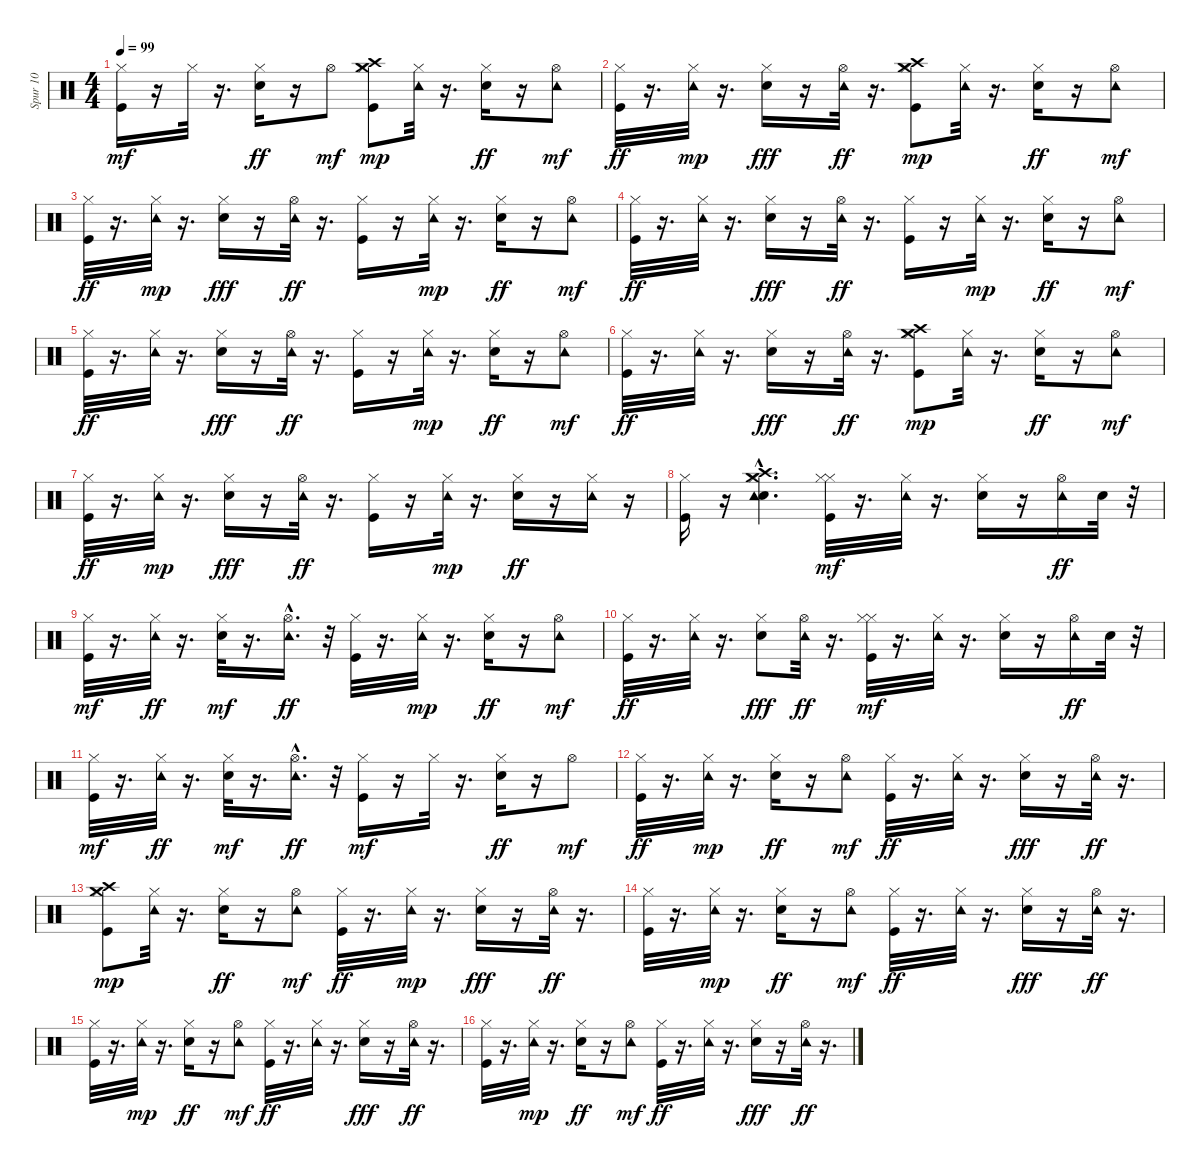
\track ("Spur 10" "Spur 10") {instrument percussion}
\staff {score}
\articulation defaults
\ts (4 4)
\tempo 99
\clef neutral
\ks c
("Kick (hit)" "Hi-Hat (closed)").16{dy mf} r.16 "Hi-Hat (closed)".32 r.16{d} ("Hi-Hat (closed)" "Electric Snare (hit)").16{dy ff} r.16 "Hi-Hat (open)".8{dy mf} ("Hi-Hat (closed)" "Kick (hit)" "Crash high (hit)" "Crash medium (hit)").8{dy mp} ("Hi-Hat (closed)" "Tambourine (hit)").32 r.16{d} ("Hi-Hat (closed)" "Electric Snare (hit)").16{dy ff} r.16 ("Hi-Hat (open)" "Tambourine (hit)").8{dy mf} |
("Hi-Hat (closed)" "Kick (hit)").32{dy ff} r.16{d} ("Hi-Hat (closed)" "Tambourine (hit)").32{dy mp} r.16{d} ("Hi-Hat (closed)" "Electric Snare (hit)").16{dy fff} r.16 ("Hi-Hat (open)" "Tambourine (hit)").32{dy ff} r.16{d} ("Hi-Hat (closed)" "Kick (hit)" "Crash high (hit)" "Crash medium (hit)").8{dy mp} ("Hi-Hat (closed)" "Tambourine (hit)").32 r.16{d} ("Hi-Hat (closed)" "Electric Snare (hit)").16{dy ff} r.16 ("Hi-Hat (open)" "Tambourine (hit)").8{dy mf} |
("Hi-Hat (closed)" "Kick (hit)").32{dy ff} r.16{d} ("Hi-Hat (closed)" "Tambourine (hit)").32{dy mp} r.16{d} ("Hi-Hat (closed)" "Electric Snare (hit)").16{dy fff} r.16 ("Hi-Hat (open)" "Tambourine (hit)").32{dy ff} r.16{d} ("Hi-Hat (closed)" "Kick (hit)").16 r.16 ("Hi-Hat (closed)" "Tambourine (hit)").32{dy mp} r.16{d} ("Hi-Hat (closed)" "Electric Snare (hit)").16{dy ff} r.16 ("Hi-Hat (open)" "Tambourine (hit)").8{dy mf} |
("Hi-Hat (closed)" "Kick (hit)").32{dy ff} r.16{d} ("Hi-Hat (closed)" "Tambourine (hit)").32 r.16{d} ("Hi-Hat (closed)" "Electric Snare (hit)").16{dy fff} r.16 ("Hi-Hat (open)" "Tambourine (hit)").32{dy ff} r.16{d} ("Hi-Hat (closed)" "Kick (hit)").16 r.16 ("Hi-Hat (closed)" "Tambourine (hit)").32{dy mp} r.16{d} ("Hi-Hat (closed)" "Electric Snare (hit)").16{dy ff} r.16 ("Hi-Hat (open)" "Tambourine (hit)").8{dy mf} |
("Hi-Hat (closed)" "Kick (hit)").32{dy ff} r.16{d} ("Hi-Hat (closed)" "Tambourine (hit)").32 r.16{d} ("Hi-Hat (closed)" "Electric Snare (hit)").16{dy fff} r.16 ("Hi-Hat (open)" "Tambourine (hit)").32{dy ff} r.16{d} ("Hi-Hat (closed)" "Kick (hit)").16 r.16 ("Hi-Hat (closed)" "Tambourine (hit)").32{dy mp} r.16{d} ("Hi-Hat (closed)" "Electric Snare (hit)").16{dy ff} r.16 ("Hi-Hat (open)" "Tambourine (hit)").8{dy mf} |
("Hi-Hat (closed)" "Kick (hit)").32{dy ff} r.16{d} ("Hi-Hat (closed)" "Tambourine (hit)").32 r.16{d} ("Hi-Hat (closed)" "Electric Snare (hit)").16{dy fff} r.16 ("Hi-Hat (open)" "Tambourine (hit)").32{dy ff} r.16{d} ("Hi-Hat (closed)" "Kick (hit)" "Crash high (hit)" "Crash medium (hit)").8{dy mp} ("Hi-Hat (closed)" "Tambourine (hit)").32 r.16{d} ("Hi-Hat (closed)" "Electric Snare (hit)").16{dy ff} r.16 ("Hi-Hat (open)" "Tambourine (hit)").8{dy mf} |
("Hi-Hat (closed)" "Kick (hit)").32{dy ff} r.16{d} ("Hi-Hat (closed)" "Tambourine (hit)").32{dy mp} r.16{d} ("Hi-Hat (closed)" "Electric Snare (hit)").16{dy fff} r.16 ("Hi-Hat (open)" "Tambourine (hit)").32{dy ff} r.16{d} ("Hi-Hat (closed)" "Kick (hit)").16 r.16 ("Hi-Hat (closed)" "Tambourine (hit)").32{dy mp} r.16{d} ("Hi-Hat (closed)" "Electric Snare (hit)").16{dy ff} r.16 ("Hi-Hat (closed)" "Tambourine (hit)").16 r.16 |
("Hi-Hat (closed)" "Kick (hit)").16 r.16 ("Hi-Hat (closed)"{hac} "Electric Snare (hit)" "Crash high (hit)" "Crash medium (hit)" "Tambourine (hit)").4{d} ("Hi-Hat (closed)" "Hi-Hat (closed)" "Kick (hit)").32{dy mf} r.16{d} ("Hi-Hat (closed)" "Tambourine (hit)").32 r.16{d} ("Electric Snare (hit)" "Hi-Hat (closed)").16 r.16 ("Hi-Hat (open)" "Tambourine (hit)").16{dy ff} "Electric Snare (hit)".32 r.32 |
("Hi-Hat (closed)" "Kick (hit)").32{dy mf} r.16{d} ("Hi-Hat (closed)" "Tambourine (hit)").32{dy ff} r.16{d} ("Electric Snare (hit)" "Hi-Hat (closed)").32{dy mf} r.16{d} ("Hi-Hat (open)"{hac} "Tambourine (hit)").16{d dy ff} r.32 ("Hi-Hat (closed)" "Kick (hit)").32 r.16{d} ("Hi-Hat (closed)" "Tambourine (hit)").32{dy mp} r.16{d} ("Hi-Hat (closed)" "Electric Snare (hit)").16{dy ff} r.16 ("Hi-Hat (open)" "Tambourine (hit)").8{dy mf} |
("Hi-Hat (closed)" "Kick (hit)").32{dy ff} r.16{d} ("Hi-Hat (closed)" "Tambourine (hit)").32 r.16{d} ("Hi-Hat (closed)" "Electric Snare (hit)").8{dy fff} ("Hi-Hat (open)" "Tambourine (hit)").32{dy ff} r.16{d} ("Hi-Hat (closed)" "Hi-Hat (closed)" "Kick (hit)").32{dy mf} r.16{d} ("Hi-Hat (closed)" "Tambourine (hit)").32 r.16{d} ("Electric Snare (hit)" "Hi-Hat (closed)").16 r.16 ("Hi-Hat (open)" "Tambourine (hit)").16{dy ff} "Electric Snare (hit)".32 r.32 |
("Hi-Hat (closed)" "Kick (hit)").32{dy mf} r.16{d} ("Hi-Hat (closed)" "Tambourine (hit)").32{dy ff} r.16{d} ("Electric Snare (hit)" "Hi-Hat (closed)").32{dy mf} r.16{d} ("Hi-Hat (open)"{hac} "Tambourine (hit)").16{d dy ff} r.32 ("Kick (hit)" "Hi-Hat (closed)").16{dy mf} r.16 "Hi-Hat (closed)".32 r.16{d} ("Hi-Hat (closed)" "Electric Snare (hit)").16{dy ff} r.16 "Hi-Hat (open)".8{dy mf} |
("Hi-Hat (closed)" "Kick (hit)").32{dy ff} r.16{d} ("Hi-Hat (closed)" "Tambourine (hit)").32{dy mp} r.16{d} ("Hi-Hat (closed)" "Electric Snare (hit)").16{dy ff} r.16 ("Hi-Hat (open)" "Tambourine (hit)").8{dy mf} ("Hi-Hat (closed)" "Kick (hit)").32{dy ff} r.16{d} ("Hi-Hat (closed)" "Tambourine (hit)").32 r.16{d} ("Hi-Hat (closed)" "Electric Snare (hit)").16{dy fff} r.16 ("Hi-Hat (open)" "Tambourine (hit)").32{dy ff} r.16{d} |
("Hi-Hat (closed)" "Kick (hit)" "Crash high (hit)" "Crash medium (hit)").8{dy mp} ("Hi-Hat (closed)" "Tambourine (hit)").32 r.16{d} ("Hi-Hat (closed)" "Electric Snare (hit)").16{dy ff} r.16 ("Hi-Hat (open)" "Tambourine (hit)").8{dy mf} ("Hi-Hat (closed)" "Kick (hit)").32{dy ff} r.16{d} ("Hi-Hat (closed)" "Tambourine (hit)").32{dy mp} r.16{d} ("Hi-Hat (closed)" "Electric Snare (hit)").16{dy fff} r.16 ("Hi-Hat (open)" "Tambourine (hit)").32{dy ff} r.16{d} |
("Hi-Hat (closed)" "Kick (hit)").32 r.16{d} ("Hi-Hat (closed)" "Tambourine (hit)").32{dy mp} r.16{d} ("Hi-Hat (closed)" "Electric Snare (hit)").16{dy ff} r.16 ("Hi-Hat (open)" "Tambourine (hit)").8{dy mf} ("Hi-Hat (closed)" "Kick (hit)").32{dy ff} r.16{d} ("Hi-Hat (closed)" "Tambourine (hit)").32 r.16{d} ("Hi-Hat (closed)" "Electric Snare (hit)").16{dy fff} r.16 ("Hi-Hat (open)" "Tambourine (hit)").32{dy ff} r.16{d} |
("Hi-Hat (closed)" "Kick (hit)").32 r.16{d} ("Hi-Hat (closed)" "Tambourine (hit)").32{dy mp} r.16{d} ("Hi-Hat (closed)" "Electric Snare (hit)").16{dy ff} r.16 ("Hi-Hat (open)" "Tambourine (hit)").8{dy mf} ("Hi-Hat (closed)" "Kick (hit)").32{dy ff} r.16{d} ("Hi-Hat (closed)" "Tambourine (hit)").32 r.16{d} ("Hi-Hat (closed)" "Electric Snare (hit)").16{dy fff} r.16 ("Hi-Hat (open)" "Tambourine (hit)").32{dy ff} r.16{d} |
("Hi-Hat (closed)" "Kick (hit)").32 r.16{d} ("Hi-Hat (closed)" "Tambourine (hit)").32{dy mp} r.16{d} ("Hi-Hat (closed)" "Electric Snare (hit)").16{dy ff} r.16 ("Hi-Hat (open)" "Tambourine (hit)").8{dy mf} ("Hi-Hat (closed)" "Kick (hit)").32{dy ff} r.16{d} ("Hi-Hat (closed)" "Tambourine (hit)").32 r.16{d} ("Hi-Hat (closed)" "Electric Snare (hit)").16{dy fff} r.16 ("Hi-Hat (open)" "Tambourine (hit)").32{dy ff} r.16{d}
